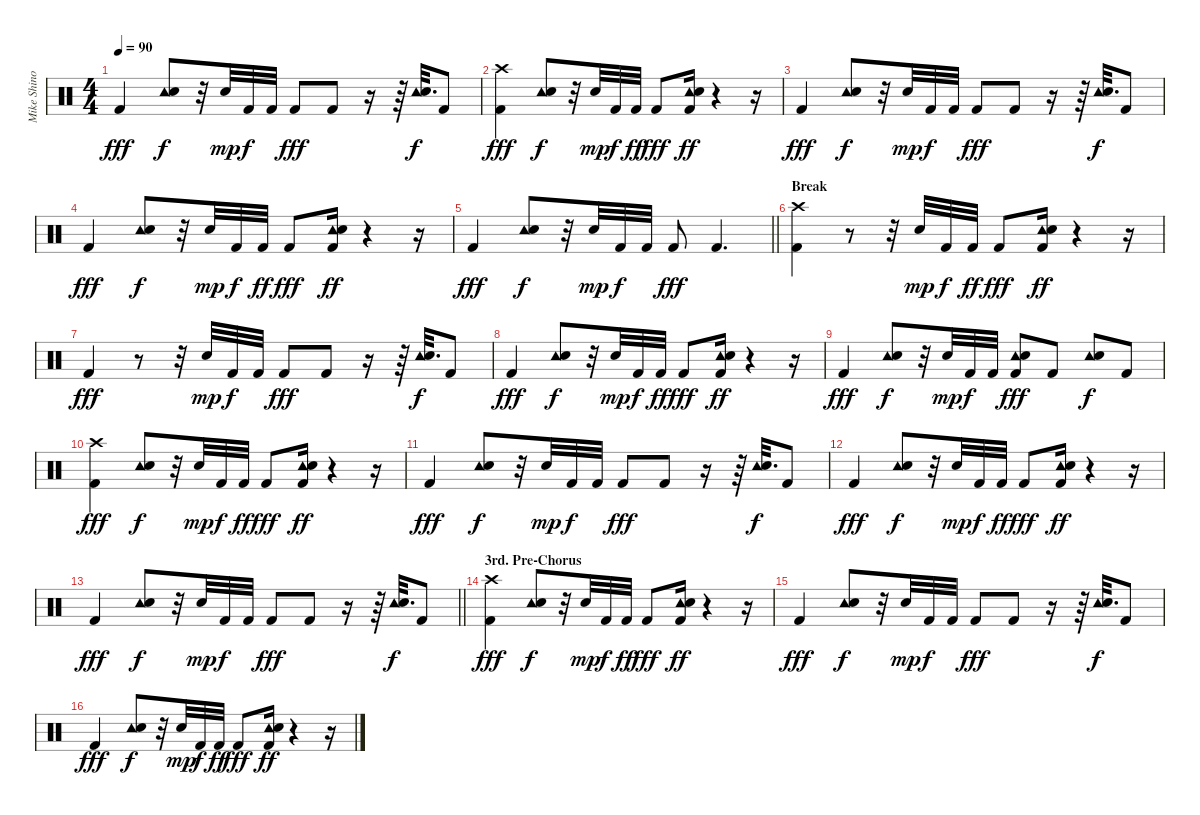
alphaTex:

\track ("Mike Shinoda - Percussion" "Mike Shino") {instrument percussion}
\staff {score}
\articulation defaults
\ts (4 4)
\tempo 90
\clef neutral
\ks c "Kick (hit) 2".4{dy fff}
("Tambourine (hit)" "Electric Snare (hit)").8{dy f} r.32 "Snare (hit) 2".32{dy mp} "Kick (hit) 2".32{dy f} "Kick (hit) 2".32 "Kick (hit) 2".8{dy fff} "Kick (hit) 2".8 r.16 r.64 ("Tambourine (hit)" "Electric Snare (hit)").32{d dy f} "Kick (hit) 2".8 |
("Crash high (hit)" "Kick (hit) 2").4{dy fff} ("Tambourine (hit)" "Electric Snare (hit)").8{dy f} r.32 "Snare (hit) 2".32{dy mp} "Kick (hit) 2".32{dy f} "Kick (hit) 2".32{dy ff} "Kick (hit) 2".8{dy fff} ("Tambourine (hit)" "Electric Snare (hit)" "Kick (hit) 2").16{dy ff} r.4 r.16 |
"Kick (hit) 2".4{dy fff} ("Tambourine (hit)" "Electric Snare (hit)").8{dy f} r.32 "Snare (hit) 2".32{dy mp} "Kick (hit) 2".32{dy f} "Kick (hit) 2".32 "Kick (hit) 2".8{dy fff} "Kick (hit) 2".8 r.16 r.64 ("Tambourine (hit)" "Electric Snare (hit)").32{d dy f} "Kick (hit) 2".8 |
"Kick (hit) 2".4{dy fff} ("Tambourine (hit)" "Electric Snare (hit)").8{dy f} r.32 "Snare (hit) 2".32{dy mp} "Kick (hit) 2".32{dy f} "Kick (hit) 2".32{dy ff} "Kick (hit) 2".8{dy fff} ("Tambourine (hit)" "Electric Snare (hit)" "Kick (hit) 2").16{dy ff} r.4 r.16 |
\barLineRight lightlight "Kick (hit) 2".4{dy fff}
("Tambourine (hit)" "Electric Snare (hit)").8{dy f} r.32 "Snare (hit) 2".32{dy mp} "Kick (hit) 2".32{dy f} "Kick (hit) 2".32 "Kick (hit) 2".8{dy fff} "Kick (hit) 2".4{d} |
\section ("" "Break")
("Crash high (hit)" "Kick (hit) 2").4 r.8 r.32 "Snare (hit) 2".32{dy mp} "Kick (hit) 2".32{dy f} "Kick (hit) 2".32{dy ff} "Kick (hit) 2".8{dy fff} ("Tambourine (hit)" "Electric Snare (hit)" "Kick (hit) 2").16{dy ff} r.4 r.16 |
"Kick (hit) 2".4{dy fff} r.8 r.32 "Snare (hit) 2".32{dy mp} "Kick (hit) 2".32{dy f} "Kick (hit) 2".32 "Kick (hit) 2".8{dy fff} "Kick (hit) 2".8 r.16 r.64 ("Tambourine (hit)" "Electric Snare (hit)").32{d dy f} "Kick (hit) 2".8 |
"Kick (hit) 2".4{dy fff} ("Tambourine (hit)" "Electric Snare (hit)").8{dy f} r.32 "Snare (hit) 2".32{dy mp} "Kick (hit) 2".32{dy f} "Kick (hit) 2".32{dy ff} "Kick (hit) 2".8{dy fff} ("Tambourine (hit)" "Electric Snare (hit)" "Kick (hit) 2").16{dy ff} r.4 r.16 |
"Kick (hit) 2".4{dy fff} ("Tambourine (hit)" "Electric Snare (hit)").8{dy f} r.32 "Snare (hit) 2".32{dy mp} "Kick (hit) 2".32{dy f} "Kick (hit) 2".32 ("Tambourine (hit)" "Electric Snare (hit)" "Kick (hit) 2").8{dy fff} "Kick (hit) 2".8 ("Tambourine (hit)" "Electric Snare (hit)").8{dy f} "Kick (hit) 2".8 |
("Crash high (hit)" "Kick (hit) 2").4{dy fff} ("Tambourine (hit)" "Electric Snare (hit)").8{dy f} r.32 "Snare (hit) 2".32{dy mp} "Kick (hit) 2".32{dy f} "Kick (hit) 2".32{dy ff} "Kick (hit) 2".8{dy fff} ("Tambourine (hit)" "Electric Snare (hit)" "Kick (hit) 2").16{dy ff} r.4 r.16 |
"Kick (hit) 2".4{dy fff} ("Tambourine (hit)" "Electric Snare (hit)").8{dy f} r.32 "Snare (hit) 2".32{dy mp} "Kick (hit) 2".32{dy f} "Kick (hit) 2".32 "Kick (hit) 2".8{dy fff} "Kick (hit) 2".8 r.16 r.64 ("Tambourine (hit)" "Electric Snare (hit)").32{d dy f} "Kick (hit) 2".8 |
"Kick (hit) 2".4{dy fff} ("Tambourine (hit)" "Electric Snare (hit)").8{dy f} r.32 "Snare (hit) 2".32{dy mp} "Kick (hit) 2".32{dy f} "Kick (hit) 2".32{dy ff} "Kick (hit) 2".8{dy fff} ("Tambourine (hit)" "Electric Snare (hit)" "Kick (hit) 2").16{dy ff} r.4 r.16 |
\barLineRight lightlight "Kick (hit) 2".4{dy fff}
("Tambourine (hit)" "Electric Snare (hit)").8{dy f} r.32 "Snare (hit) 2".32{dy mp} "Kick (hit) 2".32{dy f} "Kick (hit) 2".32 "Kick (hit) 2".8{dy fff} "Kick (hit) 2".8 r.16 r.64 ("Tambourine (hit)" "Electric Snare (hit)").32{d dy f} "Kick (hit) 2".8 |
\section ("" "3rd. Pre-Chorus")
("Crash high (hit)" "Kick (hit) 2").4{dy fff} ("Tambourine (hit)" "Electric Snare (hit)").8{dy f} r.32 "Snare (hit) 2".32{dy mp} "Kick (hit) 2".32{dy f} "Kick (hit) 2".32{dy ff} "Kick (hit) 2".8{dy fff} ("Tambourine (hit)" "Electric Snare (hit)" "Kick (hit) 2").16{dy ff} r.4 r.16 |
"Kick (hit) 2".4{dy fff} ("Tambourine (hit)" "Electric Snare (hit)").8{dy f} r.32 "Snare (hit) 2".32{dy mp} "Kick (hit) 2".32{dy f} "Kick (hit) 2".32 "Kick (hit) 2".8{dy fff} "Kick (hit) 2".8 r.16 r.64 ("Tambourine (hit)" "Electric Snare (hit)").32{d dy f} "Kick (hit) 2".8 |
"Kick (hit) 2".4{dy fff} ("Tambourine (hit)" "Electric Snare (hit)").8{dy f} r.32 "Snare (hit) 2".32{dy mp} "Kick (hit) 2".32{dy f} "Kick (hit) 2".32{dy ff} "Kick (hit) 2".8{dy fff} ("Tambourine (hit)" "Electric Snare (hit)" "Kick (hit) 2").16{dy ff} r.4 r.16
